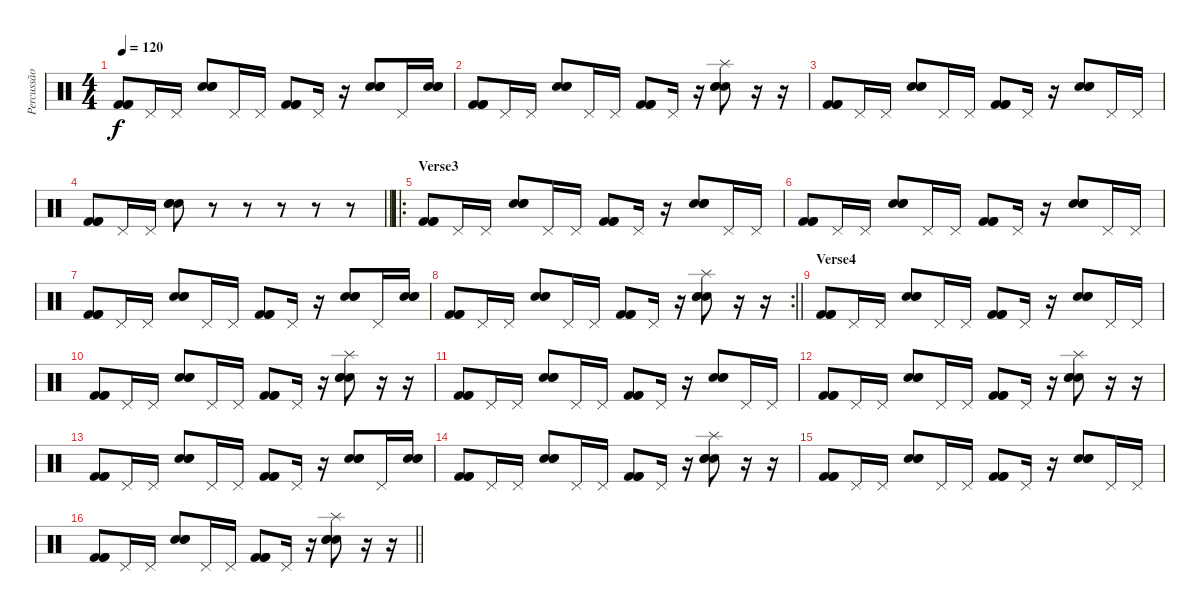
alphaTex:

\track ("Percussão" "Percussão") {instrument percussion}
\staff {score}
\articulation defaults
\ts (4 4)
\tempo 120
\clef neutral
\ks c
("Kick (hit) 2" "Kick (hit) 2" "Kick (hit) 2").8{dy f} "Pedal Hi-Hat (hit)".16 "Pedal Hi-Hat (hit)".16 ("Hand Clap (hit)" "Hand Clap (hit)" "Hand Clap (hit)").8 "Pedal Hi-Hat (hit)".16 "Pedal Hi-Hat (hit)".16 ("Kick (hit) 2" "Kick (hit) 2" "Kick (hit) 2").8 "Pedal Hi-Hat (hit)".16 r.16 ("Hand Clap (hit)" "Hand Clap (hit)" "Hand Clap (hit)").8 "Pedal Hi-Hat (hit)".16 ("Hand Clap (hit)" "Hand Clap (hit)" "Hand Clap (hit)").16 |
("Kick (hit) 2" "Kick (hit) 2" "Kick (hit) 2").8 "Pedal Hi-Hat (hit)".16 "Pedal Hi-Hat (hit)".16 ("Hand Clap (hit)" "Hand Clap (hit)" "Hand Clap (hit)").8 "Pedal Hi-Hat (hit)".16 "Pedal Hi-Hat (hit)".16 ("Kick (hit) 2" "Kick (hit) 2" "Kick (hit) 2").8 "Pedal Hi-Hat (hit)".16 r.16 ("Splash (hit)" "Hand Clap (hit)" "Hand Clap (hit)" "Hand Clap (hit)").8 r.16 r.16 |
("Kick (hit) 2" "Kick (hit) 2" "Kick (hit) 2").8 "Pedal Hi-Hat (hit)".16 "Pedal Hi-Hat (hit)".16 ("Hand Clap (hit)" "Hand Clap (hit)" "Hand Clap (hit)").8 "Pedal Hi-Hat (hit)".16 "Pedal Hi-Hat (hit)".16 ("Kick (hit) 2" "Kick (hit) 2" "Kick (hit) 2").8 "Pedal Hi-Hat (hit)".16 r.16 ("Hand Clap (hit)" "Hand Clap (hit)" "Hand Clap (hit)").8 "Pedal Hi-Hat (hit)".16 "Pedal Hi-Hat (hit)".16 |
\barLineRight lightlight
("Kick (hit) 2" "Kick (hit) 2" "Kick (hit) 2").8 "Pedal Hi-Hat (hit)".16 "Pedal Hi-Hat (hit)".16 ("Hand Clap (hit)" "Hand Clap (hit)" "Hand Clap (hit)").8 r.8 r.8 r.8 r.8 r.8 |
\ro
\section ("" "Verse3")
("Kick (hit) 2" "Kick (hit) 2" "Kick (hit) 2").8 "Pedal Hi-Hat (hit)".16 "Pedal Hi-Hat (hit)".16 ("Hand Clap (hit)" "Hand Clap (hit)" "Hand Clap (hit)").8 "Pedal Hi-Hat (hit)".16 "Pedal Hi-Hat (hit)".16 ("Kick (hit) 2" "Kick (hit) 2" "Kick (hit) 2").8 "Pedal Hi-Hat (hit)".16 r.16 ("Hand Clap (hit)" "Hand Clap (hit)" "Hand Clap (hit)").8 "Pedal Hi-Hat (hit)".16 "Pedal Hi-Hat (hit)".16 |
("Kick (hit) 2" "Kick (hit) 2" "Kick (hit) 2").8 "Pedal Hi-Hat (hit)".16 "Pedal Hi-Hat (hit)".16 ("Hand Clap (hit)" "Hand Clap (hit)" "Hand Clap (hit)").8 "Pedal Hi-Hat (hit)".16 "Pedal Hi-Hat (hit)".16 ("Kick (hit) 2" "Kick (hit) 2" "Kick (hit) 2").8 "Pedal Hi-Hat (hit)".16 r.16 ("Hand Clap (hit)" "Hand Clap (hit)" "Hand Clap (hit)").8 "Pedal Hi-Hat (hit)".16 "Pedal Hi-Hat (hit)".16 |
("Kick (hit) 2" "Kick (hit) 2" "Kick (hit) 2").8 "Pedal Hi-Hat (hit)".16 "Pedal Hi-Hat (hit)".16 ("Hand Clap (hit)" "Hand Clap (hit)" "Hand Clap (hit)").8 "Pedal Hi-Hat (hit)".16 "Pedal Hi-Hat (hit)".16 ("Kick (hit) 2" "Kick (hit) 2" "Kick (hit) 2").8 "Pedal Hi-Hat (hit)".16 r.16 ("Hand Clap (hit)" "Hand Clap (hit)" "Hand Clap (hit)").8 "Pedal Hi-Hat (hit)".16 ("Hand Clap (hit)" "Hand Clap (hit)" "Hand Clap (hit)").16 |
\rc 2
\barLineRight lightlight
("Kick (hit) 2" "Kick (hit) 2" "Kick (hit) 2").8 "Pedal Hi-Hat (hit)".16 "Pedal Hi-Hat (hit)".16 ("Hand Clap (hit)" "Hand Clap (hit)" "Hand Clap (hit)").8 "Pedal Hi-Hat (hit)".16 "Pedal Hi-Hat (hit)".16 ("Kick (hit) 2" "Kick (hit) 2" "Kick (hit) 2").8 "Pedal Hi-Hat (hit)".16 r.16 ("Splash (hit)" "Hand Clap (hit)" "Hand Clap (hit)" "Hand Clap (hit)").8 r.16 r.16 |
\section ("" "Verse4")
("Kick (hit) 2" "Kick (hit) 2" "Kick (hit) 2").8 "Pedal Hi-Hat (hit)".16 "Pedal Hi-Hat (hit)".16 ("Hand Clap (hit)" "Hand Clap (hit)" "Hand Clap (hit)").8 "Pedal Hi-Hat (hit)".16 "Pedal Hi-Hat (hit)".16 ("Kick (hit) 2" "Kick (hit) 2" "Kick (hit) 2").8 "Pedal Hi-Hat (hit)".16 r.16 ("Hand Clap (hit)" "Hand Clap (hit)" "Hand Clap (hit)").8 "Pedal Hi-Hat (hit)".16 "Pedal Hi-Hat (hit)".16 |
("Kick (hit) 2" "Kick (hit) 2" "Kick (hit) 2").8 "Pedal Hi-Hat (hit)".16 "Pedal Hi-Hat (hit)".16 ("Hand Clap (hit)" "Hand Clap (hit)" "Hand Clap (hit)").8 "Pedal Hi-Hat (hit)".16 "Pedal Hi-Hat (hit)".16 ("Kick (hit) 2" "Kick (hit) 2" "Kick (hit) 2").8 "Pedal Hi-Hat (hit)".16 r.16 ("Splash (hit)" "Hand Clap (hit)" "Hand Clap (hit)" "Hand Clap (hit)").8 r.16 r.16 |
("Kick (hit) 2" "Kick (hit) 2" "Kick (hit) 2").8 "Pedal Hi-Hat (hit)".16 "Pedal Hi-Hat (hit)".16 ("Hand Clap (hit)" "Hand Clap (hit)" "Hand Clap (hit)").8 "Pedal Hi-Hat (hit)".16 "Pedal Hi-Hat (hit)".16 ("Kick (hit) 2" "Kick (hit) 2" "Kick (hit) 2").8 "Pedal Hi-Hat (hit)".16 r.16 ("Hand Clap (hit)" "Hand Clap (hit)" "Hand Clap (hit)").8 "Pedal Hi-Hat (hit)".16 "Pedal Hi-Hat (hit)".16 |
("Kick (hit) 2" "Kick (hit) 2" "Kick (hit) 2").8 "Pedal Hi-Hat (hit)".16 "Pedal Hi-Hat (hit)".16 ("Hand Clap (hit)" "Hand Clap (hit)" "Hand Clap (hit)").8 "Pedal Hi-Hat (hit)".16 "Pedal Hi-Hat (hit)".16 ("Kick (hit) 2" "Kick (hit) 2" "Kick (hit) 2").8 "Pedal Hi-Hat (hit)".16 r.16 ("Splash (hit)" "Hand Clap (hit)" "Hand Clap (hit)" "Hand Clap (hit)").8 r.16 r.16 |
("Kick (hit) 2" "Kick (hit) 2" "Kick (hit) 2").8 "Pedal Hi-Hat (hit)".16 "Pedal Hi-Hat (hit)".16 ("Hand Clap (hit)" "Hand Clap (hit)" "Hand Clap (hit)").8 "Pedal Hi-Hat (hit)".16 "Pedal Hi-Hat (hit)".16 ("Kick (hit) 2" "Kick (hit) 2" "Kick (hit) 2").8 "Pedal Hi-Hat (hit)".16 r.16 ("Hand Clap (hit)" "Hand Clap (hit)" "Hand Clap (hit)").8 "Pedal Hi-Hat (hit)".16 ("Hand Clap (hit)" "Hand Clap (hit)" "Hand Clap (hit)").16 |
("Kick (hit) 2" "Kick (hit) 2" "Kick (hit) 2").8 "Pedal Hi-Hat (hit)".16 "Pedal Hi-Hat (hit)".16 ("Hand Clap (hit)" "Hand Clap (hit)" "Hand Clap (hit)").8 "Pedal Hi-Hat (hit)".16 "Pedal Hi-Hat (hit)".16 ("Kick (hit) 2" "Kick (hit) 2" "Kick (hit) 2").8 "Pedal Hi-Hat (hit)".16 r.16 ("Splash (hit)" "Hand Clap (hit)" "Hand Clap (hit)" "Hand Clap (hit)").8 r.16 r.16 |
("Kick (hit) 2" "Kick (hit) 2" "Kick (hit) 2").8 "Pedal Hi-Hat (hit)".16 "Pedal Hi-Hat (hit)".16 ("Hand Clap (hit)" "Hand Clap (hit)" "Hand Clap (hit)").8 "Pedal Hi-Hat (hit)".16 "Pedal Hi-Hat (hit)".16 ("Kick (hit) 2" "Kick (hit) 2" "Kick (hit) 2").8 "Pedal Hi-Hat (hit)".16 r.16 ("Hand Clap (hit)" "Hand Clap (hit)" "Hand Clap (hit)").8 "Pedal Hi-Hat (hit)".16 "Pedal Hi-Hat (hit)".16 |
\barLineRight lightlight
("Kick (hit) 2" "Kick (hit) 2" "Kick (hit) 2").8 "Pedal Hi-Hat (hit)".16 "Pedal Hi-Hat (hit)".16 ("Hand Clap (hit)" "Hand Clap (hit)" "Hand Clap (hit)").8 "Pedal Hi-Hat (hit)".16 "Pedal Hi-Hat (hit)".16 ("Kick (hit) 2" "Kick (hit) 2" "Kick (hit) 2").8 "Pedal Hi-Hat (hit)".16 r.16 ("Splash (hit)" "Hand Clap (hit)" "Hand Clap (hit)" "Hand Clap (hit)").8 r.16 r.16
